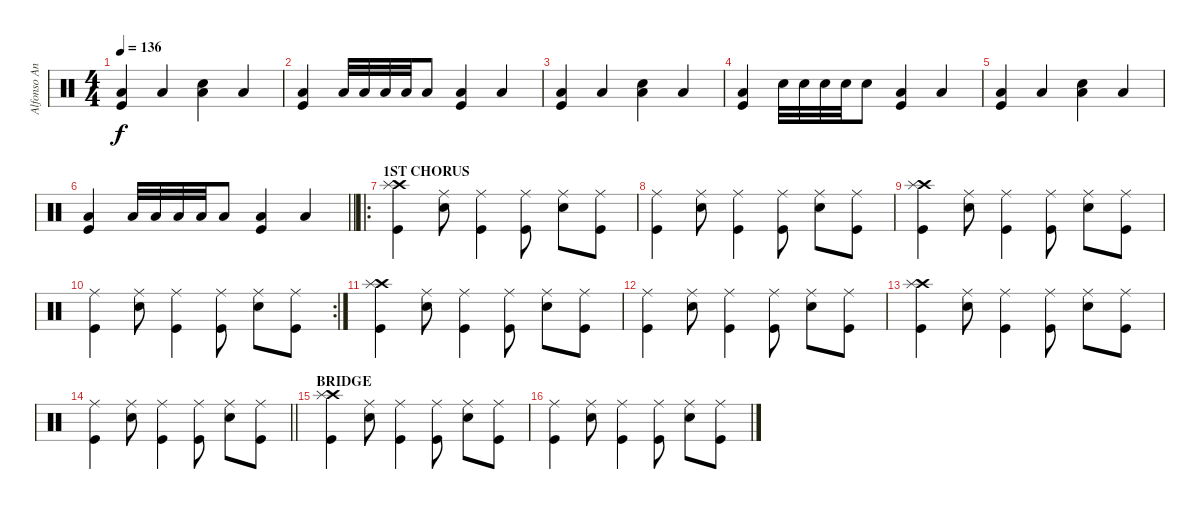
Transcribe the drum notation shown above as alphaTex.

\track ("Alfonso Andre" "Alfonso An") {instrument percussion}
\staff {score}
\articulation defaults
\ts (4 4)
\tempo 136
\clef neutral
\ks c
("Kick (hit)" "Low Floor Tom (hit)").4{dy f} "Low Floor Tom (hit)".4 ("Snare (hit) 2" "Low Floor Tom (hit)").4 "Low Floor Tom (hit)".4 |
("Kick (hit)" "Low Floor Tom (hit)").4 "Low Tom (hit)".32 "Low Tom (hit)".32 "Low Tom (hit)".32 "Low Tom (hit)".32 "Low Tom (hit)".8 ("Kick (hit)" "Low Floor Tom (hit)").4 "Low Floor Tom (hit)".4 |
("Kick (hit)" "Low Floor Tom (hit)").4 "Low Floor Tom (hit)".4 ("Snare (hit) 2" "Low Floor Tom (hit)").4 "Low Floor Tom (hit)".4 |
("Kick (hit)" "Low Floor Tom (hit)").4 "Snare (hit) 2".32 "Snare (hit) 2".32 "Snare (hit) 2".32 "Snare (hit) 2".32 "Snare (hit) 2".8 ("Kick (hit)" "Low Floor Tom (hit)").4 "Low Floor Tom (hit)".4 |
("Kick (hit)" "Low Floor Tom (hit)").4 "Low Floor Tom (hit)".4 ("Snare (hit) 2" "Low Floor Tom (hit)").4 "Low Floor Tom (hit)".4 |
\barLineRight lightlight
("Kick (hit)" "Low Floor Tom (hit)").4 "Low Tom (hit)".32 "Low Tom (hit)".32 "Low Tom (hit)".32 "Low Tom (hit)".32 "Low Tom (hit)".8 ("Kick (hit)" "Low Floor Tom (hit)").4 "Low Floor Tom (hit)".4 |
\ro
\section ("" "1ST CHORUS")
("Kick (hit)" "Crash high (hit)" "Splash (hit)").4 ("Snare (hit) 2" "Ride (middle)").8 ("Kick (hit)" "Ride (middle)").4 ("Kick (hit)" "Ride (middle)").8 ("Snare (hit) 2" "Ride (middle)").8 ("Kick (hit)" "Ride (middle)").8 |
("Kick (hit)" "Ride (middle)").4 ("Snare (hit) 2" "Ride (middle)").8 ("Kick (hit)" "Ride (middle)").4 ("Kick (hit)" "Ride (middle)").8 ("Snare (hit) 2" "Ride (middle)").8 ("Kick (hit)" "Ride (middle)").8 |
("Kick (hit)" "Crash high (hit)" "Splash (hit)").4 ("Snare (hit) 2" "Ride (middle)").8 ("Kick (hit)" "Ride (middle)").4 ("Kick (hit)" "Ride (middle)").8 ("Snare (hit) 2" "Ride (middle)").8 ("Kick (hit)" "Ride (middle)").8 |
\rc 2
("Kick (hit)" "Ride (middle)").4 ("Snare (hit) 2" "Ride (middle)").8 ("Kick (hit)" "Ride (middle)").4 ("Kick (hit)" "Ride (middle)").8 ("Snare (hit) 2" "Ride (middle)").8 ("Kick (hit)" "Ride (middle)").8 |
("Kick (hit)" "Crash high (hit)" "Splash (hit)").4 ("Snare (hit) 2" "Ride (middle)").8 ("Kick (hit)" "Ride (middle)").4 ("Kick (hit)" "Ride (middle)").8 ("Snare (hit) 2" "Ride (middle)").8 ("Kick (hit)" "Ride (middle)").8 |
("Kick (hit)" "Ride (middle)").4 ("Snare (hit) 2" "Ride (middle)").8 ("Kick (hit)" "Ride (middle)").4 ("Kick (hit)" "Ride (middle)").8 ("Snare (hit) 2" "Ride (middle)").8 ("Kick (hit)" "Ride (middle)").8 |
("Kick (hit)" "Crash high (hit)" "Splash (hit)").4 ("Snare (hit) 2" "Ride (middle)").8 ("Kick (hit)" "Ride (middle)").4 ("Kick (hit)" "Ride (middle)").8 ("Snare (hit) 2" "Ride (middle)").8 ("Kick (hit)" "Ride (middle)").8 |
\barLineRight lightlight
("Kick (hit)" "Ride (middle)").4 ("Snare (hit) 2" "Ride (middle)").8 ("Kick (hit)" "Ride (middle)").4 ("Kick (hit)" "Ride (middle)").8 ("Snare (hit) 2" "Ride (middle)").8 ("Kick (hit)" "Ride (middle)").8 |
\section ("" "BRIDGE")
("Kick (hit)" "Crash high (hit)" "Splash (hit)").4 ("Snare (hit) 2" "Ride (middle)").8 ("Kick (hit)" "Ride (middle)").4 ("Kick (hit)" "Ride (middle)").8 ("Snare (hit) 2" "Ride (middle)").8 ("Kick (hit)" "Ride (middle)").8 |
("Kick (hit)" "Ride (middle)").4 ("Snare (hit) 2" "Ride (middle)").8 ("Kick (hit)" "Ride (middle)").4 ("Kick (hit)" "Ride (middle)").8 ("Snare (hit) 2" "Ride (middle)").8 ("Kick (hit)" "Ride (middle)").8
